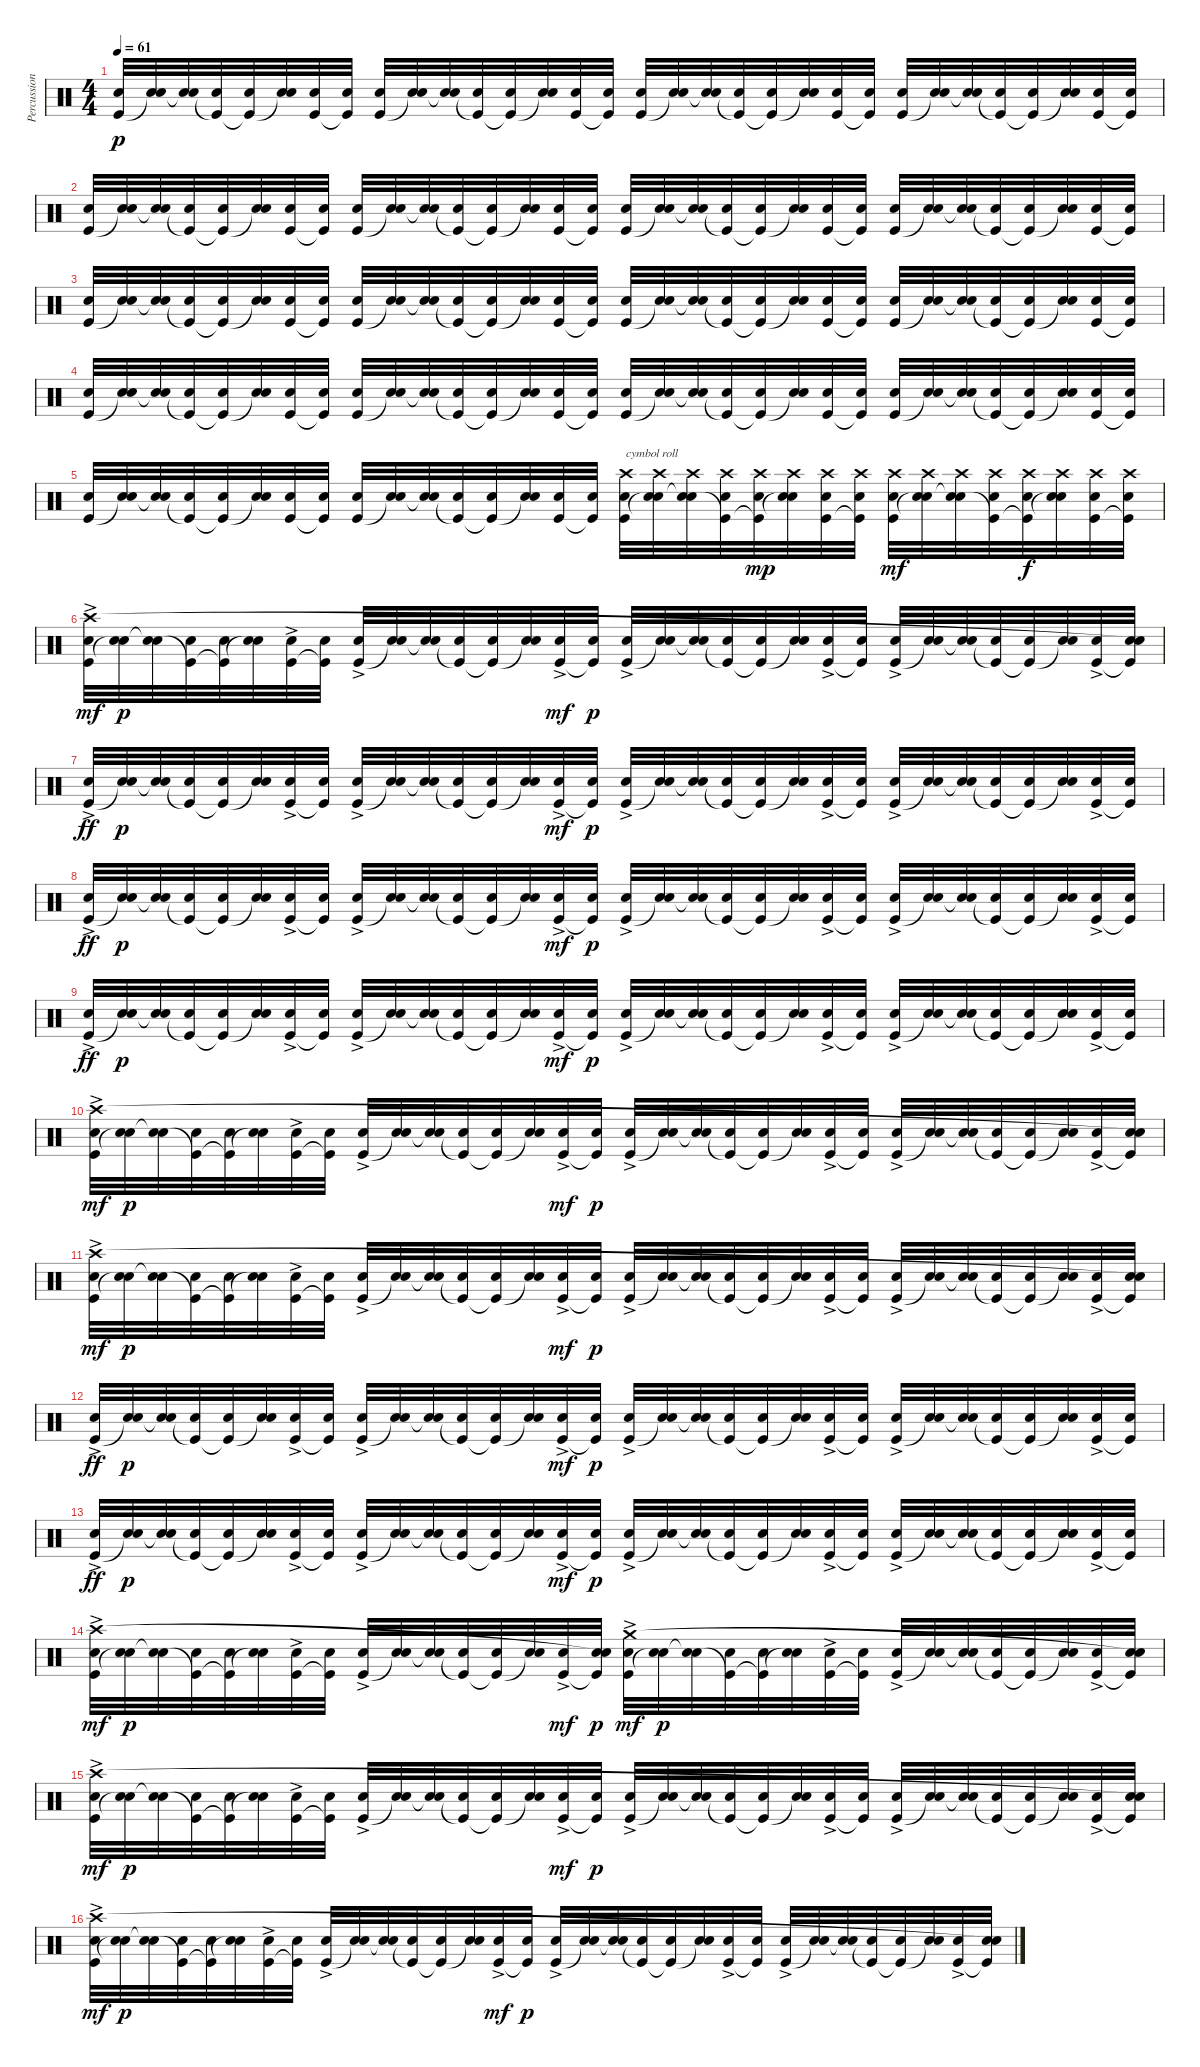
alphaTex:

\track ("Percussion" "Percussion") {instrument percussion}
\staff {score}
\articulation defaults
\ts (4 4)
\tempo 61
\clef neutral
\ks c
("Snare (hit) 2" "Kick (hit)").32{dy p} ("Snare (hit) 2" "Snare (hit)"{t}).32 ("Snare (hit) 2" "Snare (hit)"{t}).32 ("Snare (hit) 2" "Kick (hit)"{t}).32 ("Snare (hit) 2" "Kick (hit)"{t}).32 ("Snare (hit) 2" "Snare (hit)"{t}).32 ("Snare (hit) 2" "Kick (hit)").32 ("Snare (hit) 2" "Kick (hit)"{t}).32 ("Snare (hit) 2" "Kick (hit)").32 ("Snare (hit) 2" "Snare (hit)"{t}).32 ("Snare (hit) 2" "Snare (hit)"{t}).32 ("Snare (hit) 2" "Kick (hit)"{t}).32 ("Snare (hit) 2" "Kick (hit)"{t}).32 ("Snare (hit) 2" "Snare (hit)"{t}).32 ("Snare (hit) 2" "Kick (hit)").32 ("Snare (hit) 2" "Kick (hit)"{t}).32 ("Snare (hit) 2" "Kick (hit)").32 ("Snare (hit) 2" "Snare (hit)"{t}).32 ("Snare (hit) 2" "Snare (hit)"{t}).32 ("Snare (hit) 2" "Kick (hit)"{t}).32 ("Snare (hit) 2" "Kick (hit)"{t}).32 ("Snare (hit) 2" "Snare (hit)"{t}).32 ("Snare (hit) 2" "Kick (hit)").32 ("Snare (hit) 2" "Kick (hit)"{t}).32 ("Snare (hit) 2" "Kick (hit)").32 ("Snare (hit) 2" "Snare (hit)"{t}).32 ("Snare (hit) 2" "Snare (hit)"{t}).32 ("Snare (hit) 2" "Kick (hit)"{t}).32 ("Snare (hit) 2" "Kick (hit)"{t}).32 ("Snare (hit) 2" "Snare (hit)"{t}).32 ("Snare (hit) 2" "Kick (hit)").32 ("Snare (hit) 2" "Kick (hit)"{t}).32 |
("Snare (hit) 2" "Kick (hit)").32 ("Snare (hit) 2" "Snare (hit)"{t}).32 ("Snare (hit) 2" "Snare (hit)"{t}).32 ("Snare (hit) 2" "Kick (hit)"{t}).32 ("Snare (hit) 2" "Kick (hit)"{t}).32 ("Snare (hit) 2" "Snare (hit)"{t}).32 ("Snare (hit) 2" "Kick (hit)").32 ("Snare (hit) 2" "Kick (hit)"{t}).32 ("Snare (hit) 2" "Kick (hit)").32 ("Snare (hit) 2" "Snare (hit)"{t}).32 ("Snare (hit) 2" "Snare (hit)"{t}).32 ("Snare (hit) 2" "Kick (hit)"{t}).32 ("Snare (hit) 2" "Kick (hit)"{t}).32 ("Snare (hit) 2" "Snare (hit)"{t}).32 ("Snare (hit) 2" "Kick (hit)").32 ("Snare (hit) 2" "Kick (hit)"{t}).32 ("Snare (hit) 2" "Kick (hit)").32 ("Snare (hit) 2" "Snare (hit)"{t}).32 ("Snare (hit) 2" "Snare (hit)"{t}).32 ("Snare (hit) 2" "Kick (hit)"{t}).32 ("Snare (hit) 2" "Kick (hit)"{t}).32 ("Snare (hit) 2" "Snare (hit)"{t}).32 ("Snare (hit) 2" "Kick (hit)").32 ("Snare (hit) 2" "Kick (hit)"{t}).32 ("Snare (hit) 2" "Kick (hit)").32 ("Snare (hit) 2" "Snare (hit)"{t}).32 ("Snare (hit) 2" "Snare (hit)"{t}).32 ("Snare (hit) 2" "Kick (hit)"{t}).32 ("Snare (hit) 2" "Kick (hit)"{t}).32 ("Snare (hit) 2" "Snare (hit)"{t}).32 ("Snare (hit) 2" "Kick (hit)").32 ("Snare (hit) 2" "Kick (hit)"{t}).32 |
("Snare (hit) 2" "Kick (hit)").32 ("Snare (hit) 2" "Snare (hit)"{t}).32 ("Snare (hit) 2" "Snare (hit)"{t}).32 ("Snare (hit) 2" "Kick (hit)"{t}).32 ("Snare (hit) 2" "Kick (hit)"{t}).32 ("Snare (hit) 2" "Snare (hit)"{t}).32 ("Snare (hit) 2" "Kick (hit)").32 ("Snare (hit) 2" "Kick (hit)"{t}).32 ("Snare (hit) 2" "Kick (hit)").32 ("Snare (hit) 2" "Snare (hit)"{t}).32 ("Snare (hit) 2" "Snare (hit)"{t}).32 ("Snare (hit) 2" "Kick (hit)"{t}).32 ("Snare (hit) 2" "Kick (hit)"{t}).32 ("Snare (hit) 2" "Snare (hit)"{t}).32 ("Snare (hit) 2" "Kick (hit)").32 ("Snare (hit) 2" "Kick (hit)"{t}).32 ("Snare (hit) 2" "Kick (hit)").32 ("Snare (hit) 2" "Snare (hit)"{t}).32 ("Snare (hit) 2" "Snare (hit)"{t}).32 ("Snare (hit) 2" "Kick (hit)"{t}).32 ("Snare (hit) 2" "Kick (hit)"{t}).32 ("Snare (hit) 2" "Snare (hit)"{t}).32 ("Snare (hit) 2" "Kick (hit)").32 ("Snare (hit) 2" "Kick (hit)"{t}).32 ("Snare (hit) 2" "Kick (hit)").32 ("Snare (hit) 2" "Snare (hit)"{t}).32 ("Snare (hit) 2" "Snare (hit)"{t}).32 ("Snare (hit) 2" "Kick (hit)"{t}).32 ("Snare (hit) 2" "Kick (hit)"{t}).32 ("Snare (hit) 2" "Snare (hit)"{t}).32 ("Snare (hit) 2" "Kick (hit)").32 ("Snare (hit) 2" "Kick (hit)"{t}).32 |
("Snare (hit) 2" "Kick (hit)").32 ("Snare (hit) 2" "Snare (hit)"{t}).32 ("Snare (hit) 2" "Snare (hit)"{t}).32 ("Snare (hit) 2" "Kick (hit)"{t}).32 ("Snare (hit) 2" "Kick (hit)"{t}).32 ("Snare (hit) 2" "Snare (hit)"{t}).32 ("Snare (hit) 2" "Kick (hit)").32 ("Snare (hit) 2" "Kick (hit)"{t}).32 ("Snare (hit) 2" "Kick (hit)").32 ("Snare (hit) 2" "Snare (hit)"{t}).32 ("Snare (hit) 2" "Snare (hit)"{t}).32 ("Snare (hit) 2" "Kick (hit)"{t}).32 ("Snare (hit) 2" "Kick (hit)"{t}).32 ("Snare (hit) 2" "Snare (hit)"{t}).32 ("Snare (hit) 2" "Kick (hit)").32 ("Snare (hit) 2" "Kick (hit)"{t}).32 ("Snare (hit) 2" "Kick (hit)").32 ("Snare (hit) 2" "Snare (hit)"{t}).32 ("Snare (hit) 2" "Snare (hit)"{t}).32 ("Snare (hit) 2" "Kick (hit)"{t}).32 ("Snare (hit) 2" "Kick (hit)"{t}).32 ("Snare (hit) 2" "Snare (hit)"{t}).32 ("Snare (hit) 2" "Kick (hit)").32 ("Snare (hit) 2" "Kick (hit)"{t}).32 ("Snare (hit) 2" "Kick (hit)").32 ("Snare (hit) 2" "Snare (hit)"{t}).32 ("Snare (hit) 2" "Snare (hit)"{t}).32 ("Snare (hit) 2" "Kick (hit)"{t}).32 ("Snare (hit) 2" "Kick (hit)"{t}).32 ("Snare (hit) 2" "Snare (hit)"{t}).32 ("Snare (hit) 2" "Kick (hit)").32 ("Snare (hit) 2" "Kick (hit)"{t}).32 |
("Snare (hit) 2" "Kick (hit)").32 ("Snare (hit) 2" "Snare (hit)"{t}).32 ("Snare (hit) 2" "Snare (hit)"{t}).32 ("Snare (hit) 2" "Kick (hit)"{t}).32 ("Snare (hit) 2" "Kick (hit)"{t}).32 ("Snare (hit) 2" "Snare (hit)"{t}).32 ("Snare (hit) 2" "Kick (hit)").32 ("Snare (hit) 2" "Kick (hit)"{t}).32 ("Snare (hit) 2" "Kick (hit)").32 ("Snare (hit) 2" "Snare (hit)"{t}).32 ("Snare (hit) 2" "Snare (hit)"{t}).32 ("Snare (hit) 2" "Kick (hit)"{t}).32 ("Snare (hit) 2" "Kick (hit)"{t}).32 ("Snare (hit) 2" "Snare (hit)"{t}).32 ("Snare (hit) 2" "Kick (hit)").32 ("Snare (hit) 2" "Kick (hit)"{t}).32 ("Snare (hit) 2" "Kick (hit)" "Crash high (hit)").32{txt "cymbol roll"} ("Snare (hit) 2" "Snare (hit)"{t} "Crash high (hit)").32 ("Snare (hit) 2" "Snare (hit)"{t} "Crash high (hit)").32 ("Snare (hit) 2" "Kick (hit)"{t} "Crash high (hit)").32 ("Snare (hit) 2" "Kick (hit)"{t} "Crash high (hit)").32{dy mp} ("Snare (hit) 2" "Snare (hit)"{t} "Crash high (hit)").32 ("Snare (hit) 2" "Kick (hit)" "Crash high (hit)").32 ("Snare (hit) 2" "Kick (hit)"{t} "Crash high (hit)").32 ("Snare (hit) 2" "Kick (hit)" "Crash high (hit)").32{dy mf} ("Snare (hit) 2" "Snare (hit)"{t} "Crash high (hit)").32 ("Snare (hit) 2" "Snare (hit)"{t} "Crash high (hit)").32 ("Snare (hit) 2" "Kick (hit)"{t} "Crash high (hit)").32 ("Snare (hit) 2" "Kick (hit)"{t} "Crash high (hit)").32{dy f} ("Snare (hit) 2" "Snare (hit)"{t} "Crash high (hit)").32 ("Snare (hit) 2" "Kick (hit)" "Crash high (hit)").32 ("Snare (hit) 2" "Kick (hit)"{t} "Crash high (hit)").32 |
("Snare (hit) 2" "Kick (hit)"{ac} "Crash high (hit)").32{dy mf} ("Snare (hit) 2" "Snare (hit)"{t}).32{dy p} ("Snare (hit) 2" "Snare (hit)"{t}).32 ("Snare (hit) 2" "Kick (hit)"{t}).32 ("Snare (hit) 2" "Kick (hit)"{t}).32 ("Snare (hit) 2" "Snare (hit)"{t}).32 ("Snare (hit) 2"{ac} "Kick (hit)").32 ("Snare (hit) 2" "Kick (hit)"{t}).32 ("Snare (hit) 2"{ac} "Kick (hit)").32 ("Snare (hit) 2" "Snare (hit)"{t}).32 ("Snare (hit) 2" "Snare (hit)"{t}).32 ("Snare (hit) 2" "Kick (hit)"{t}).32 ("Snare (hit) 2" "Kick (hit)"{t}).32 ("Snare (hit) 2" "Snare (hit)"{t}).32 ("Snare (hit) 2" "Kick (hit)"{ac}).32{dy mf} ("Snare (hit) 2" "Kick (hit)"{t}).32{dy p} ("Snare (hit) 2" "Kick (hit)"{ac}).32 ("Snare (hit) 2" "Snare (hit)"{t}).32 ("Snare (hit) 2" "Snare (hit)"{t}).32 ("Snare (hit) 2" "Kick (hit)"{t}).32 ("Snare (hit) 2" "Kick (hit)"{t}).32 ("Snare (hit) 2" "Snare (hit)"{t}).32 ("Snare (hit) 2"{ac} "Kick (hit)").32 ("Snare (hit) 2" "Kick (hit)"{t}).32 ("Snare (hit) 2"{ac} "Kick (hit)").32 ("Snare (hit) 2" "Snare (hit)"{t}).32 ("Snare (hit) 2" "Snare (hit)"{t}).32 ("Snare (hit) 2" "Kick (hit)"{t}).32 ("Snare (hit) 2" "Kick (hit)"{t}).32 ("Snare (hit) 2" "Snare (hit)"{t}).32 ("Snare (hit) 2" "Kick (hit)"{ac}).32 ("Snare (hit) 2" "Kick (hit)"{t} "Snare (hit)"{t}).32 |
("Snare (hit) 2" "Kick (hit)"{ac}).32{dy ff} ("Snare (hit) 2" "Snare (hit)"{t}).32{dy p} ("Snare (hit) 2" "Snare (hit)"{t}).32 ("Snare (hit) 2" "Kick (hit)"{t}).32 ("Snare (hit) 2" "Kick (hit)"{t}).32 ("Snare (hit) 2" "Snare (hit)"{t}).32 ("Snare (hit) 2"{ac} "Kick (hit)").32 ("Snare (hit) 2" "Kick (hit)"{t}).32 ("Snare (hit) 2"{ac} "Kick (hit)").32 ("Snare (hit) 2" "Snare (hit)"{t}).32 ("Snare (hit) 2" "Snare (hit)"{t}).32 ("Snare (hit) 2" "Kick (hit)"{t}).32 ("Snare (hit) 2" "Kick (hit)"{t}).32 ("Snare (hit) 2" "Snare (hit)"{t}).32 ("Snare (hit) 2" "Kick (hit)"{ac}).32{dy mf} ("Snare (hit) 2" "Kick (hit)"{t}).32{dy p} ("Snare (hit) 2" "Kick (hit)"{ac}).32 ("Snare (hit) 2" "Snare (hit)"{t}).32 ("Snare (hit) 2" "Snare (hit)"{t}).32 ("Snare (hit) 2" "Kick (hit)"{t}).32 ("Snare (hit) 2" "Kick (hit)"{t}).32 ("Snare (hit) 2" "Snare (hit)"{t}).32 ("Snare (hit) 2"{ac} "Kick (hit)").32 ("Snare (hit) 2" "Kick (hit)"{t}).32 ("Snare (hit) 2"{ac} "Kick (hit)").32 ("Snare (hit) 2" "Snare (hit)"{t}).32 ("Snare (hit) 2" "Snare (hit)"{t}).32 ("Snare (hit) 2" "Kick (hit)"{t}).32 ("Snare (hit) 2" "Kick (hit)"{t}).32 ("Snare (hit) 2" "Snare (hit)"{t}).32 ("Snare (hit) 2" "Kick (hit)"{ac}).32 ("Snare (hit) 2" "Kick (hit)"{t}).32 |
("Snare (hit) 2" "Kick (hit)"{ac}).32{dy ff} ("Snare (hit) 2" "Snare (hit)"{t}).32{dy p} ("Snare (hit) 2" "Snare (hit)"{t}).32 ("Snare (hit) 2" "Kick (hit)"{t}).32 ("Snare (hit) 2" "Kick (hit)"{t}).32 ("Snare (hit) 2" "Snare (hit)"{t}).32 ("Snare (hit) 2"{ac} "Kick (hit)").32 ("Snare (hit) 2" "Kick (hit)"{t}).32 ("Snare (hit) 2"{ac} "Kick (hit)").32 ("Snare (hit) 2" "Snare (hit)"{t}).32 ("Snare (hit) 2" "Snare (hit)"{t}).32 ("Snare (hit) 2" "Kick (hit)"{t}).32 ("Snare (hit) 2" "Kick (hit)"{t}).32 ("Snare (hit) 2" "Snare (hit)"{t}).32 ("Snare (hit) 2" "Kick (hit)"{ac}).32{dy mf} ("Snare (hit) 2" "Kick (hit)"{t}).32{dy p} ("Snare (hit) 2" "Kick (hit)"{ac}).32 ("Snare (hit) 2" "Snare (hit)"{t}).32 ("Snare (hit) 2" "Snare (hit)"{t}).32 ("Snare (hit) 2" "Kick (hit)"{t}).32 ("Snare (hit) 2" "Kick (hit)"{t}).32 ("Snare (hit) 2" "Snare (hit)"{t}).32 ("Snare (hit) 2"{ac} "Kick (hit)").32 ("Snare (hit) 2" "Kick (hit)"{t}).32 ("Snare (hit) 2"{ac} "Kick (hit)").32 ("Snare (hit) 2" "Snare (hit)"{t}).32 ("Snare (hit) 2" "Snare (hit)"{t}).32 ("Snare (hit) 2" "Kick (hit)"{t}).32 ("Snare (hit) 2" "Kick (hit)"{t}).32 ("Snare (hit) 2" "Snare (hit)"{t}).32 ("Snare (hit) 2" "Kick (hit)"{ac}).32 ("Snare (hit) 2" "Kick (hit)"{t}).32 |
("Snare (hit) 2" "Kick (hit)"{ac}).32{dy ff} ("Snare (hit) 2" "Snare (hit)"{t}).32{dy p} ("Snare (hit) 2" "Snare (hit)"{t}).32 ("Snare (hit) 2" "Kick (hit)"{t}).32 ("Snare (hit) 2" "Kick (hit)"{t}).32 ("Snare (hit) 2" "Snare (hit)"{t}).32 ("Snare (hit) 2"{ac} "Kick (hit)").32 ("Snare (hit) 2" "Kick (hit)"{t}).32 ("Snare (hit) 2"{ac} "Kick (hit)").32 ("Snare (hit) 2" "Snare (hit)"{t}).32 ("Snare (hit) 2" "Snare (hit)"{t}).32 ("Snare (hit) 2" "Kick (hit)"{t}).32 ("Snare (hit) 2" "Kick (hit)"{t}).32 ("Snare (hit) 2" "Snare (hit)"{t}).32 ("Snare (hit) 2" "Kick (hit)"{ac}).32{dy mf} ("Snare (hit) 2" "Kick (hit)"{t}).32{dy p} ("Snare (hit) 2" "Kick (hit)"{ac}).32 ("Snare (hit) 2" "Snare (hit)"{t}).32 ("Snare (hit) 2" "Snare (hit)"{t}).32 ("Snare (hit) 2" "Kick (hit)"{t}).32 ("Snare (hit) 2" "Kick (hit)"{t}).32 ("Snare (hit) 2" "Snare (hit)"{t}).32 ("Snare (hit) 2"{ac} "Kick (hit)").32 ("Snare (hit) 2" "Kick (hit)"{t}).32 ("Snare (hit) 2"{ac} "Kick (hit)").32 ("Snare (hit) 2" "Snare (hit)"{t}).32 ("Snare (hit) 2" "Snare (hit)"{t}).32 ("Snare (hit) 2" "Kick (hit)"{t}).32 ("Snare (hit) 2" "Kick (hit)"{t}).32 ("Snare (hit) 2" "Snare (hit)"{t}).32 ("Snare (hit) 2" "Kick (hit)"{ac}).32 ("Snare (hit) 2" "Kick (hit)"{t}).32 |
("Snare (hit) 2" "Kick (hit)"{ac} "Crash high (hit)").32{dy mf} ("Snare (hit) 2" "Snare (hit)"{t}).32{dy p} ("Snare (hit) 2" "Snare (hit)"{t}).32 ("Snare (hit) 2" "Kick (hit)"{t}).32 ("Snare (hit) 2" "Kick (hit)"{t}).32 ("Snare (hit) 2" "Snare (hit)"{t}).32 ("Snare (hit) 2"{ac} "Kick (hit)").32 ("Snare (hit) 2" "Kick (hit)"{t}).32 ("Snare (hit) 2"{ac} "Kick (hit)").32 ("Snare (hit) 2" "Snare (hit)"{t}).32 ("Snare (hit) 2" "Snare (hit)"{t}).32 ("Snare (hit) 2" "Kick (hit)"{t}).32 ("Snare (hit) 2" "Kick (hit)"{t}).32 ("Snare (hit) 2" "Snare (hit)"{t}).32 ("Snare (hit) 2" "Kick (hit)"{ac}).32{dy mf} ("Snare (hit) 2" "Kick (hit)"{t}).32{dy p} ("Snare (hit) 2" "Kick (hit)"{ac}).32 ("Snare (hit) 2" "Snare (hit)"{t}).32 ("Snare (hit) 2" "Snare (hit)"{t}).32 ("Snare (hit) 2" "Kick (hit)"{t}).32 ("Snare (hit) 2" "Kick (hit)"{t}).32 ("Snare (hit) 2" "Snare (hit)"{t}).32 ("Snare (hit) 2"{ac} "Kick (hit)").32 ("Snare (hit) 2" "Kick (hit)"{t}).32 ("Snare (hit) 2"{ac} "Kick (hit)").32 ("Snare (hit) 2" "Snare (hit)"{t}).32 ("Snare (hit) 2" "Snare (hit)"{t}).32 ("Snare (hit) 2" "Kick (hit)"{t}).32 ("Snare (hit) 2" "Kick (hit)"{t}).32 ("Snare (hit) 2" "Snare (hit)"{t}).32 ("Snare (hit) 2" "Kick (hit)"{ac}).32 ("Snare (hit) 2" "Kick (hit)"{t} "Snare (hit)"{t}).32 |
("Snare (hit) 2" "Kick (hit)"{ac} "Crash high (hit)").32{dy mf} ("Snare (hit) 2" "Snare (hit)"{t}).32{dy p} ("Snare (hit) 2" "Snare (hit)"{t}).32 ("Snare (hit) 2" "Kick (hit)"{t}).32 ("Snare (hit) 2" "Kick (hit)"{t}).32 ("Snare (hit) 2" "Snare (hit)"{t}).32 ("Snare (hit) 2"{ac} "Kick (hit)").32 ("Snare (hit) 2" "Kick (hit)"{t}).32 ("Snare (hit) 2"{ac} "Kick (hit)").32 ("Snare (hit) 2" "Snare (hit)"{t}).32 ("Snare (hit) 2" "Snare (hit)"{t}).32 ("Snare (hit) 2" "Kick (hit)"{t}).32 ("Snare (hit) 2" "Kick (hit)"{t}).32 ("Snare (hit) 2" "Snare (hit)"{t}).32 ("Snare (hit) 2" "Kick (hit)"{ac}).32{dy mf} ("Snare (hit) 2" "Kick (hit)"{t}).32{dy p} ("Snare (hit) 2" "Kick (hit)"{ac}).32 ("Snare (hit) 2" "Snare (hit)"{t}).32 ("Snare (hit) 2" "Snare (hit)"{t}).32 ("Snare (hit) 2" "Kick (hit)"{t}).32 ("Snare (hit) 2" "Kick (hit)"{t}).32 ("Snare (hit) 2" "Snare (hit)"{t}).32 ("Snare (hit) 2"{ac} "Kick (hit)").32 ("Snare (hit) 2" "Kick (hit)"{t}).32 ("Snare (hit) 2"{ac} "Kick (hit)").32 ("Snare (hit) 2" "Snare (hit)"{t}).32 ("Snare (hit) 2" "Snare (hit)"{t}).32 ("Snare (hit) 2" "Kick (hit)"{t}).32 ("Snare (hit) 2" "Kick (hit)"{t}).32 ("Snare (hit) 2" "Snare (hit)"{t}).32 ("Snare (hit) 2" "Kick (hit)"{ac}).32 ("Snare (hit) 2" "Kick (hit)"{t} "Snare (hit)"{t}).32 |
("Snare (hit) 2" "Kick (hit)"{ac}).32{dy ff} ("Snare (hit) 2" "Snare (hit)"{t}).32{dy p} ("Snare (hit) 2" "Snare (hit)"{t}).32 ("Snare (hit) 2" "Kick (hit)"{t}).32 ("Snare (hit) 2" "Kick (hit)"{t}).32 ("Snare (hit) 2" "Snare (hit)"{t}).32 ("Snare (hit) 2"{ac} "Kick (hit)").32 ("Snare (hit) 2" "Kick (hit)"{t}).32 ("Snare (hit) 2"{ac} "Kick (hit)").32 ("Snare (hit) 2" "Snare (hit)"{t}).32 ("Snare (hit) 2" "Snare (hit)"{t}).32 ("Snare (hit) 2" "Kick (hit)"{t}).32 ("Snare (hit) 2" "Kick (hit)"{t}).32 ("Snare (hit) 2" "Snare (hit)"{t}).32 ("Snare (hit) 2" "Kick (hit)"{ac}).32{dy mf} ("Snare (hit) 2" "Kick (hit)"{t}).32{dy p} ("Snare (hit) 2" "Kick (hit)"{ac}).32 ("Snare (hit) 2" "Snare (hit)"{t}).32 ("Snare (hit) 2" "Snare (hit)"{t}).32 ("Snare (hit) 2" "Kick (hit)"{t}).32 ("Snare (hit) 2" "Kick (hit)"{t}).32 ("Snare (hit) 2" "Snare (hit)"{t}).32 ("Snare (hit) 2"{ac} "Kick (hit)").32 ("Snare (hit) 2" "Kick (hit)"{t}).32 ("Snare (hit) 2"{ac} "Kick (hit)").32 ("Snare (hit) 2" "Snare (hit)"{t}).32 ("Snare (hit) 2" "Snare (hit)"{t}).32 ("Snare (hit) 2" "Kick (hit)"{t}).32 ("Snare (hit) 2" "Kick (hit)"{t}).32 ("Snare (hit) 2" "Snare (hit)"{t}).32 ("Snare (hit) 2" "Kick (hit)"{ac}).32 ("Snare (hit) 2" "Kick (hit)"{t}).32 |
("Snare (hit) 2" "Kick (hit)"{ac}).32{dy ff} ("Snare (hit) 2" "Snare (hit)"{t}).32{dy p} ("Snare (hit) 2" "Snare (hit)"{t}).32 ("Snare (hit) 2" "Kick (hit)"{t}).32 ("Snare (hit) 2" "Kick (hit)"{t}).32 ("Snare (hit) 2" "Snare (hit)"{t}).32 ("Snare (hit) 2"{ac} "Kick (hit)").32 ("Snare (hit) 2" "Kick (hit)"{t}).32 ("Snare (hit) 2"{ac} "Kick (hit)").32 ("Snare (hit) 2" "Snare (hit)"{t}).32 ("Snare (hit) 2" "Snare (hit)"{t}).32 ("Snare (hit) 2" "Kick (hit)"{t}).32 ("Snare (hit) 2" "Kick (hit)"{t}).32 ("Snare (hit) 2" "Snare (hit)"{t}).32 ("Snare (hit) 2" "Kick (hit)"{ac}).32{dy mf} ("Snare (hit) 2" "Kick (hit)"{t}).32{dy p} ("Snare (hit) 2" "Kick (hit)"{ac}).32 ("Snare (hit) 2" "Snare (hit)"{t}).32 ("Snare (hit) 2" "Snare (hit)"{t}).32 ("Snare (hit) 2" "Kick (hit)"{t}).32 ("Snare (hit) 2" "Kick (hit)"{t}).32 ("Snare (hit) 2" "Snare (hit)"{t}).32 ("Snare (hit) 2"{ac} "Kick (hit)").32 ("Snare (hit) 2" "Kick (hit)"{t}).32 ("Snare (hit) 2"{ac} "Kick (hit)").32 ("Snare (hit) 2" "Snare (hit)"{t}).32 ("Snare (hit) 2" "Snare (hit)"{t}).32 ("Snare (hit) 2" "Kick (hit)"{t}).32 ("Snare (hit) 2" "Kick (hit)"{t}).32 ("Snare (hit) 2" "Snare (hit)"{t}).32 ("Snare (hit) 2" "Kick (hit)"{ac}).32 ("Snare (hit) 2" "Kick (hit)"{t}).32 |
("Snare (hit) 2" "Kick (hit)"{ac} "Crash high (hit)").32{dy mf} ("Snare (hit) 2" "Snare (hit)"{t}).32{dy p} ("Snare (hit) 2" "Snare (hit)"{t}).32 ("Snare (hit) 2" "Kick (hit)"{t}).32 ("Snare (hit) 2" "Kick (hit)"{t}).32 ("Snare (hit) 2" "Snare (hit)"{t}).32 ("Snare (hit) 2"{ac} "Kick (hit)").32 ("Snare (hit) 2" "Kick (hit)"{t}).32 ("Snare (hit) 2"{ac} "Kick (hit)").32 ("Snare (hit) 2" "Snare (hit)"{t}).32 ("Snare (hit) 2" "Snare (hit)"{t}).32 ("Snare (hit) 2" "Kick (hit)"{t}).32 ("Snare (hit) 2" "Kick (hit)"{t}).32 ("Snare (hit) 2" "Snare (hit)"{t}).32 ("Snare (hit) 2" "Kick (hit)"{ac}).32{dy mf} ("Snare (hit) 2" "Kick (hit)"{t} "Snare (hit)"{t}).32{dy p} ("Snare (hit) 2" "Kick (hit)"{ac} "Crash medium (hit)").32{dy mf} ("Snare (hit) 2" "Snare (hit)"{t}).32{dy p} ("Snare (hit) 2" "Snare (hit)"{t}).32 ("Snare (hit) 2" "Kick (hit)"{t}).32 ("Snare (hit) 2" "Kick (hit)"{t}).32 ("Snare (hit) 2" "Snare (hit)"{t}).32 ("Snare (hit) 2"{ac} "Kick (hit)").32 ("Snare (hit) 2" "Kick (hit)"{t}).32 ("Snare (hit) 2"{ac} "Kick (hit)").32 ("Snare (hit) 2" "Snare (hit)"{t}).32 ("Snare (hit) 2" "Snare (hit)"{t}).32 ("Snare (hit) 2" "Kick (hit)"{t}).32 ("Snare (hit) 2" "Kick (hit)"{t}).32 ("Snare (hit) 2" "Snare (hit)"{t}).32 ("Snare (hit) 2" "Kick (hit)"{ac}).32 ("Snare (hit) 2" "Kick (hit)"{t} "Snare (hit)"{t}).32 |
("Snare (hit) 2" "Kick (hit)"{ac} "Crash high (hit)").32{dy mf} ("Snare (hit) 2" "Snare (hit)"{t}).32{dy p} ("Snare (hit) 2" "Snare (hit)"{t}).32 ("Snare (hit) 2" "Kick (hit)"{t}).32 ("Snare (hit) 2" "Kick (hit)"{t}).32 ("Snare (hit) 2" "Snare (hit)"{t}).32 ("Snare (hit) 2"{ac} "Kick (hit)").32 ("Snare (hit) 2" "Kick (hit)"{t}).32 ("Snare (hit) 2"{ac} "Kick (hit)").32 ("Snare (hit) 2" "Snare (hit)"{t}).32 ("Snare (hit) 2" "Snare (hit)"{t}).32 ("Snare (hit) 2" "Kick (hit)"{t}).32 ("Snare (hit) 2" "Kick (hit)"{t}).32 ("Snare (hit) 2" "Snare (hit)"{t}).32 ("Snare (hit) 2" "Kick (hit)"{ac}).32{dy mf} ("Snare (hit) 2" "Kick (hit)"{t}).32{dy p} ("Snare (hit) 2" "Kick (hit)"{ac}).32 ("Snare (hit) 2" "Snare (hit)"{t}).32 ("Snare (hit) 2" "Snare (hit)"{t}).32 ("Snare (hit) 2" "Kick (hit)"{t}).32 ("Snare (hit) 2" "Kick (hit)"{t}).32 ("Snare (hit) 2" "Snare (hit)"{t}).32 ("Snare (hit) 2"{ac} "Kick (hit)").32 ("Snare (hit) 2" "Kick (hit)"{t}).32 ("Snare (hit) 2"{ac} "Kick (hit)").32 ("Snare (hit) 2" "Snare (hit)"{t}).32 ("Snare (hit) 2" "Snare (hit)"{t}).32 ("Snare (hit) 2" "Kick (hit)"{t}).32 ("Snare (hit) 2" "Kick (hit)"{t}).32 ("Snare (hit) 2" "Snare (hit)"{t}).32 ("Snare (hit) 2" "Kick (hit)"{ac}).32 ("Snare (hit) 2" "Kick (hit)"{t} "Snare (hit)"{t}).32 |
("Snare (hit) 2" "Kick (hit)"{ac} "Crash high (hit)").32{dy mf} ("Snare (hit) 2" "Snare (hit)"{t}).32{dy p} ("Snare (hit) 2" "Snare (hit)"{t}).32 ("Snare (hit) 2" "Kick (hit)"{t}).32 ("Snare (hit) 2" "Kick (hit)"{t}).32 ("Snare (hit) 2" "Snare (hit)"{t}).32 ("Snare (hit) 2"{ac} "Kick (hit)").32 ("Snare (hit) 2" "Kick (hit)"{t}).32 ("Snare (hit) 2"{ac} "Kick (hit)").32 ("Snare (hit) 2" "Snare (hit)"{t}).32 ("Snare (hit) 2" "Snare (hit)"{t}).32 ("Snare (hit) 2" "Kick (hit)"{t}).32 ("Snare (hit) 2" "Kick (hit)"{t}).32 ("Snare (hit) 2" "Snare (hit)"{t}).32 ("Snare (hit) 2" "Kick (hit)"{ac}).32{dy mf} ("Snare (hit) 2" "Kick (hit)"{t}).32{dy p} ("Snare (hit) 2" "Kick (hit)"{ac}).32 ("Snare (hit) 2" "Snare (hit)"{t}).32 ("Snare (hit) 2" "Snare (hit)"{t}).32 ("Snare (hit) 2" "Kick (hit)"{t}).32 ("Snare (hit) 2" "Kick (hit)"{t}).32 ("Snare (hit) 2" "Snare (hit)"{t}).32 ("Snare (hit) 2"{ac} "Kick (hit)").32 ("Snare (hit) 2" "Kick (hit)"{t}).32 ("Snare (hit) 2"{ac} "Kick (hit)").32 ("Snare (hit) 2" "Snare (hit)"{t}).32 ("Snare (hit) 2" "Snare (hit)"{t}).32 ("Snare (hit) 2" "Kick (hit)"{t}).32 ("Snare (hit) 2" "Kick (hit)"{t}).32 ("Snare (hit) 2" "Snare (hit)"{t}).32 ("Snare (hit) 2" "Kick (hit)"{ac}).32 ("Snare (hit) 2" "Kick (hit)"{t} "Snare (hit)"{t}).32
